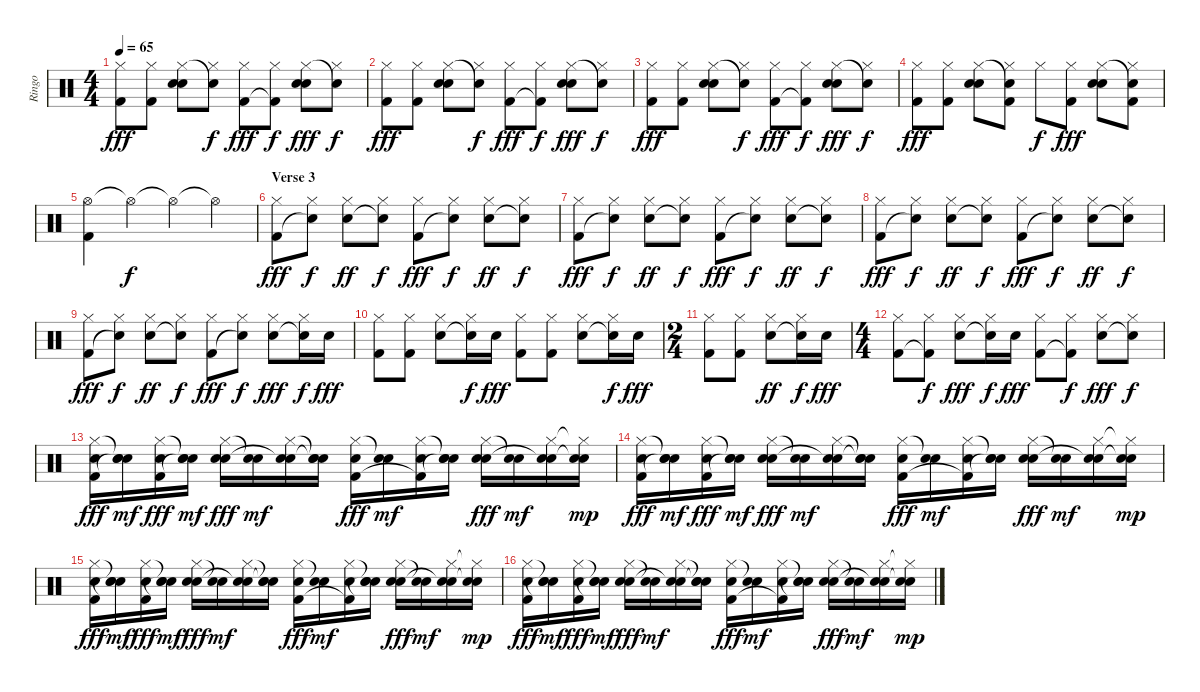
\track ("Ringo" "Ringo") {instrument percussion}
\staff {score}
\articulation defaults
\ts (4 4)
\tempo 65
\clef neutral
\ks c
("Hi-Hat (closed)" "Kick (hit) 2").8{dy fff} ("Hi-Hat (closed)" "Kick (hit) 2").8 ("Electric Snare (hit)" "Hi-Hat (closed)" "Snare (hit) 2").8 ("Hi-Hat (closed)" "Snare (hit)"{t}).8{dy f} ("Hi-Hat (closed)" "Kick (hit) 2").8{dy fff} ("Hi-Hat (closed)" "Kick (hit) 2"{t}).8{dy f} ("Electric Snare (hit)" "Hi-Hat (closed)" "Snare (hit) 2").8{dy fff} ("Hi-Hat (closed)" "Snare (hit)"{t}).8{dy f} |
("Hi-Hat (closed)" "Kick (hit) 2").8{dy fff} ("Hi-Hat (closed)" "Kick (hit) 2").8 ("Electric Snare (hit)" "Hi-Hat (closed)" "Snare (hit) 2").8 ("Hi-Hat (closed)" "Snare (hit)"{t}).8{dy f} ("Hi-Hat (closed)" "Kick (hit) 2").8{dy fff} ("Hi-Hat (closed)" "Kick (hit) 2"{t}).8{dy f} ("Electric Snare (hit)" "Hi-Hat (closed)" "Snare (hit) 2").8{dy fff} ("Hi-Hat (closed)" "Snare (hit)"{t}).8{dy f} |
("Hi-Hat (closed)" "Kick (hit) 2").8{dy fff} ("Hi-Hat (closed)" "Kick (hit) 2").8 ("Electric Snare (hit)" "Hi-Hat (closed)" "Snare (hit) 2").8 ("Hi-Hat (closed)" "Snare (hit)"{t}).8{dy f} ("Hi-Hat (closed)" "Kick (hit) 2").8{dy fff} ("Hi-Hat (closed)" "Kick (hit) 2"{t}).8{dy f} ("Electric Snare (hit)" "Hi-Hat (closed)" "Snare (hit) 2").8{dy fff} ("Hi-Hat (closed)" "Snare (hit)"{t}).8{dy f} |
("Hi-Hat (closed)" "Kick (hit) 2").8{dy fff} ("Hi-Hat (closed)" "Kick (hit) 2").8 ("Electric Snare (hit)" "Hi-Hat (closed)" "Snare (hit) 2").8 ("Hi-Hat (closed)" "Snare (hit)"{t} "Kick (hit) 2").8 "Hi-Hat (closed)".8{dy f} ("Hi-Hat (closed)" "Kick (hit) 2").8{dy fff} ("Electric Snare (hit)" "Hi-Hat (closed)" "Snare (hit) 2").8 ("Hi-Hat (closed)" "Snare (hit)"{t} "Kick (hit) 2").8 |
("Hi-Hat (open)" "Kick (hit) 2").4 "Hi-Hat (open)"{t}.4{dy f} "Hi-Hat (open)"{t}.4 "Hi-Hat (open)"{t}.4 |
\section ("" "Verse 3")
("Hi-Hat (closed)" "Kick (hit) 2").8{dy fff} ("Hi-Hat (closed)" "Snare (hit)"{t}).8{dy f} ("Hi-Hat (closed)" "Snare (hit) 2").8{dy ff} ("Hi-Hat (closed)" "Snare (hit)"{t}).8{dy f} ("Hi-Hat (closed)" "Kick (hit) 2").8{dy fff} ("Hi-Hat (closed)" "Snare (hit)"{t}).8{dy f} ("Hi-Hat (closed)" "Snare (hit) 2").8{dy ff} ("Hi-Hat (closed)" "Snare (hit)"{t}).8{dy f} |
("Hi-Hat (closed)" "Kick (hit) 2").8{dy fff} ("Hi-Hat (closed)" "Snare (hit)"{t}).8{dy f} ("Hi-Hat (closed)" "Snare (hit) 2").8{dy ff} ("Hi-Hat (closed)" "Snare (hit)"{t}).8{dy f} ("Hi-Hat (closed)" "Kick (hit) 2").8{dy fff} ("Hi-Hat (closed)" "Snare (hit)"{t}).8{dy f} ("Hi-Hat (closed)" "Snare (hit) 2").8{dy ff} ("Hi-Hat (closed)" "Snare (hit)"{t}).8{dy f} |
("Hi-Hat (closed)" "Kick (hit) 2").8{dy fff} ("Hi-Hat (closed)" "Snare (hit)"{t}).8{dy f} ("Hi-Hat (closed)" "Snare (hit) 2").8{dy ff} ("Hi-Hat (closed)" "Snare (hit)"{t}).8{dy f} ("Hi-Hat (closed)" "Kick (hit) 2").8{dy fff} ("Hi-Hat (closed)" "Snare (hit)"{t}).8{dy f} ("Hi-Hat (closed)" "Snare (hit) 2").8{dy ff} ("Hi-Hat (closed)" "Snare (hit)"{t}).8{dy f} |
("Hi-Hat (closed)" "Kick (hit) 2").8{dy fff} ("Hi-Hat (closed)" "Snare (hit)"{t}).8{dy f} ("Hi-Hat (closed)" "Snare (hit) 2").8{dy ff} ("Hi-Hat (closed)" "Snare (hit)"{t}).8{dy f} ("Hi-Hat (closed)" "Kick (hit) 2").8{dy fff} ("Hi-Hat (closed)" "Snare (hit)"{t}).8{dy f} ("Hi-Hat (closed)" "Snare (hit) 2").8{dy fff} ("Hi-Hat (closed)" "Snare (hit)"{t}).16{dy f} "Snare (hit) 2".16{dy fff} |
("Hi-Hat (closed)" "Kick (hit) 2").8 ("Hi-Hat (closed)" "Kick (hit) 2").8 ("Hi-Hat (closed)" "Snare (hit) 2").8 ("Hi-Hat (closed)" "Snare (hit)"{t}).16{dy f} "Snare (hit) 2".16{dy fff} ("Hi-Hat (closed)" "Kick (hit) 2").8 ("Hi-Hat (closed)" "Kick (hit) 2").8 ("Hi-Hat (closed)" "Snare (hit) 2").8 ("Hi-Hat (closed)" "Snare (hit)"{t}).16{dy f} "Snare (hit) 2".16{dy fff} |
\ts (2 4)
("Hi-Hat (closed)" "Kick (hit) 2").8 ("Hi-Hat (closed)" "Kick (hit) 2").8 ("Hi-Hat (closed)" "Snare (hit) 2").8{dy ff} ("Hi-Hat (closed)" "Snare (hit)"{t}).16{dy f} "Snare (hit) 2".16{dy fff} |
\ts (4 4)
("Hi-Hat (closed)" "Kick (hit) 2").8 ("Hi-Hat (closed)" "Kick (hit) 2"{t}).8{dy f} ("Hi-Hat (closed)" "Snare (hit) 2").8{dy fff} ("Hi-Hat (closed)" "Snare (hit)"{t}).16{dy f} "Snare (hit) 2".16{dy fff} ("Hi-Hat (closed)" "Kick (hit) 2").8 ("Hi-Hat (closed)" "Kick (hit) 2"{t}).8{dy f} ("Hi-Hat (closed)" "Snare (hit) 2").8{dy fff} ("Hi-Hat (closed)" "Snare (hit)"{t}).8{dy f} |
("Electric Snare (hit)" "Hi-Hat (closed)" "Kick (hit) 2").16{dy fff} ("Electric Snare (hit)" "Snare (hit)"{t} "Snare (hit)"{t}).16{dy mf} ("Electric Snare (hit)" "Hi-Hat (closed)" "Kick (hit) 2").16{dy fff} ("Electric Snare (hit)" "Snare (hit)"{t} "Snare (hit)"{t}).16{dy mf} ("Electric Snare (hit)" "Hi-Hat (closed)" "Snare (hit) 2").16{dy fff} ("Electric Snare (hit)" "Snare (hit)"{t}).16{dy mf} ("Electric Snare (hit)" "Hi-Hat (closed)" "Snare (hit)"{t}).16 ("Electric Snare (hit)" "Snare (hit)"{t} "Snare (hit)"{t}).16 ("Electric Snare (hit)" "Hi-Hat (closed)" "Kick (hit) 2").16{dy fff} ("Electric Snare (hit)" "Snare (hit)"{t}).16{dy mf} ("Electric Snare (hit)" "Hi-Hat (closed)" "Kick (hit) 2"{t}).16 ("Electric Snare (hit)" "Snare (hit)"{t} "Snare (hit)"{t}).16 ("Electric Snare (hit)" "Hi-Hat (closed)" "Snare (hit) 2").16{dy fff} ("Electric Snare (hit)" "Snare (hit)"{t}).16{dy mf} ("Electric Snare (hit)" "Hi-Hat (closed)" "Snare (hit)"{t}).16 ("Electric Snare (hit)" "Hi-Hat (closed)"{t} "Snare (hit)"{t}).16{dy mp} |
("Electric Snare (hit)" "Hi-Hat (closed)" "Kick (hit) 2").16{dy fff} ("Electric Snare (hit)" "Snare (hit)"{t} "Snare (hit)"{t}).16{dy mf} ("Electric Snare (hit)" "Hi-Hat (closed)" "Kick (hit) 2").16{dy fff} ("Electric Snare (hit)" "Snare (hit)"{t} "Snare (hit)"{t}).16{dy mf} ("Electric Snare (hit)" "Hi-Hat (closed)" "Snare (hit) 2").16{dy fff} ("Electric Snare (hit)" "Snare (hit)"{t}).16{dy mf} ("Electric Snare (hit)" "Hi-Hat (closed)" "Snare (hit)"{t}).16 ("Electric Snare (hit)" "Snare (hit)"{t} "Snare (hit)"{t}).16 ("Electric Snare (hit)" "Hi-Hat (closed)" "Kick (hit) 2").16{dy fff} ("Electric Snare (hit)" "Snare (hit)"{t}).16{dy mf} ("Electric Snare (hit)" "Hi-Hat (closed)" "Kick (hit) 2"{t}).16 ("Electric Snare (hit)" "Snare (hit)"{t} "Snare (hit)"{t}).16 ("Electric Snare (hit)" "Hi-Hat (closed)" "Snare (hit) 2").16{dy fff} ("Electric Snare (hit)" "Snare (hit)"{t}).16{dy mf} ("Electric Snare (hit)" "Hi-Hat (closed)" "Snare (hit)"{t}).16 ("Electric Snare (hit)" "Hi-Hat (closed)"{t} "Snare (hit)"{t}).16{dy mp} |
("Electric Snare (hit)" "Hi-Hat (closed)" "Kick (hit) 2").16{dy fff} ("Electric Snare (hit)" "Snare (hit)"{t} "Snare (hit)"{t}).16{dy mf} ("Electric Snare (hit)" "Hi-Hat (closed)" "Kick (hit) 2").16{dy fff} ("Electric Snare (hit)" "Snare (hit)"{t} "Snare (hit)"{t}).16{dy mf} ("Electric Snare (hit)" "Hi-Hat (closed)" "Snare (hit) 2").16{dy fff} ("Electric Snare (hit)" "Snare (hit)"{t}).16{dy mf} ("Electric Snare (hit)" "Hi-Hat (closed)" "Snare (hit)"{t}).16 ("Electric Snare (hit)" "Snare (hit)"{t} "Snare (hit)"{t}).16 ("Electric Snare (hit)" "Hi-Hat (closed)" "Kick (hit) 2").16{dy fff} ("Electric Snare (hit)" "Snare (hit)"{t}).16{dy mf} ("Electric Snare (hit)" "Hi-Hat (closed)" "Kick (hit) 2"{t}).16 ("Electric Snare (hit)" "Snare (hit)"{t} "Snare (hit)"{t}).16 ("Electric Snare (hit)" "Hi-Hat (closed)" "Snare (hit) 2").16{dy fff} ("Electric Snare (hit)" "Snare (hit)"{t}).16{dy mf} ("Electric Snare (hit)" "Hi-Hat (closed)" "Snare (hit)"{t}).16 ("Electric Snare (hit)" "Hi-Hat (closed)"{t} "Snare (hit)"{t}).16{dy mp} |
("Electric Snare (hit)" "Hi-Hat (closed)" "Kick (hit) 2").16{dy fff} ("Electric Snare (hit)" "Snare (hit)"{t} "Snare (hit)"{t}).16{dy mf} ("Electric Snare (hit)" "Hi-Hat (closed)" "Kick (hit) 2").16{dy fff} ("Electric Snare (hit)" "Snare (hit)"{t} "Snare (hit)"{t}).16{dy mf} ("Electric Snare (hit)" "Hi-Hat (closed)" "Snare (hit) 2").16{dy fff} ("Electric Snare (hit)" "Snare (hit)"{t}).16{dy mf} ("Electric Snare (hit)" "Hi-Hat (closed)" "Snare (hit)"{t}).16 ("Electric Snare (hit)" "Snare (hit)"{t} "Snare (hit)"{t}).16 ("Electric Snare (hit)" "Hi-Hat (closed)" "Kick (hit) 2").16{dy fff} ("Electric Snare (hit)" "Snare (hit)"{t}).16{dy mf} ("Electric Snare (hit)" "Hi-Hat (closed)" "Kick (hit) 2"{t}).16 ("Electric Snare (hit)" "Snare (hit)"{t} "Snare (hit)"{t}).16 ("Electric Snare (hit)" "Hi-Hat (closed)" "Snare (hit) 2").16{dy fff} ("Electric Snare (hit)" "Snare (hit)"{t}).16{dy mf} ("Electric Snare (hit)" "Hi-Hat (closed)" "Snare (hit)"{t}).16 ("Electric Snare (hit)" "Hi-Hat (closed)"{t} "Snare (hit)"{t}).16{dy mp}
